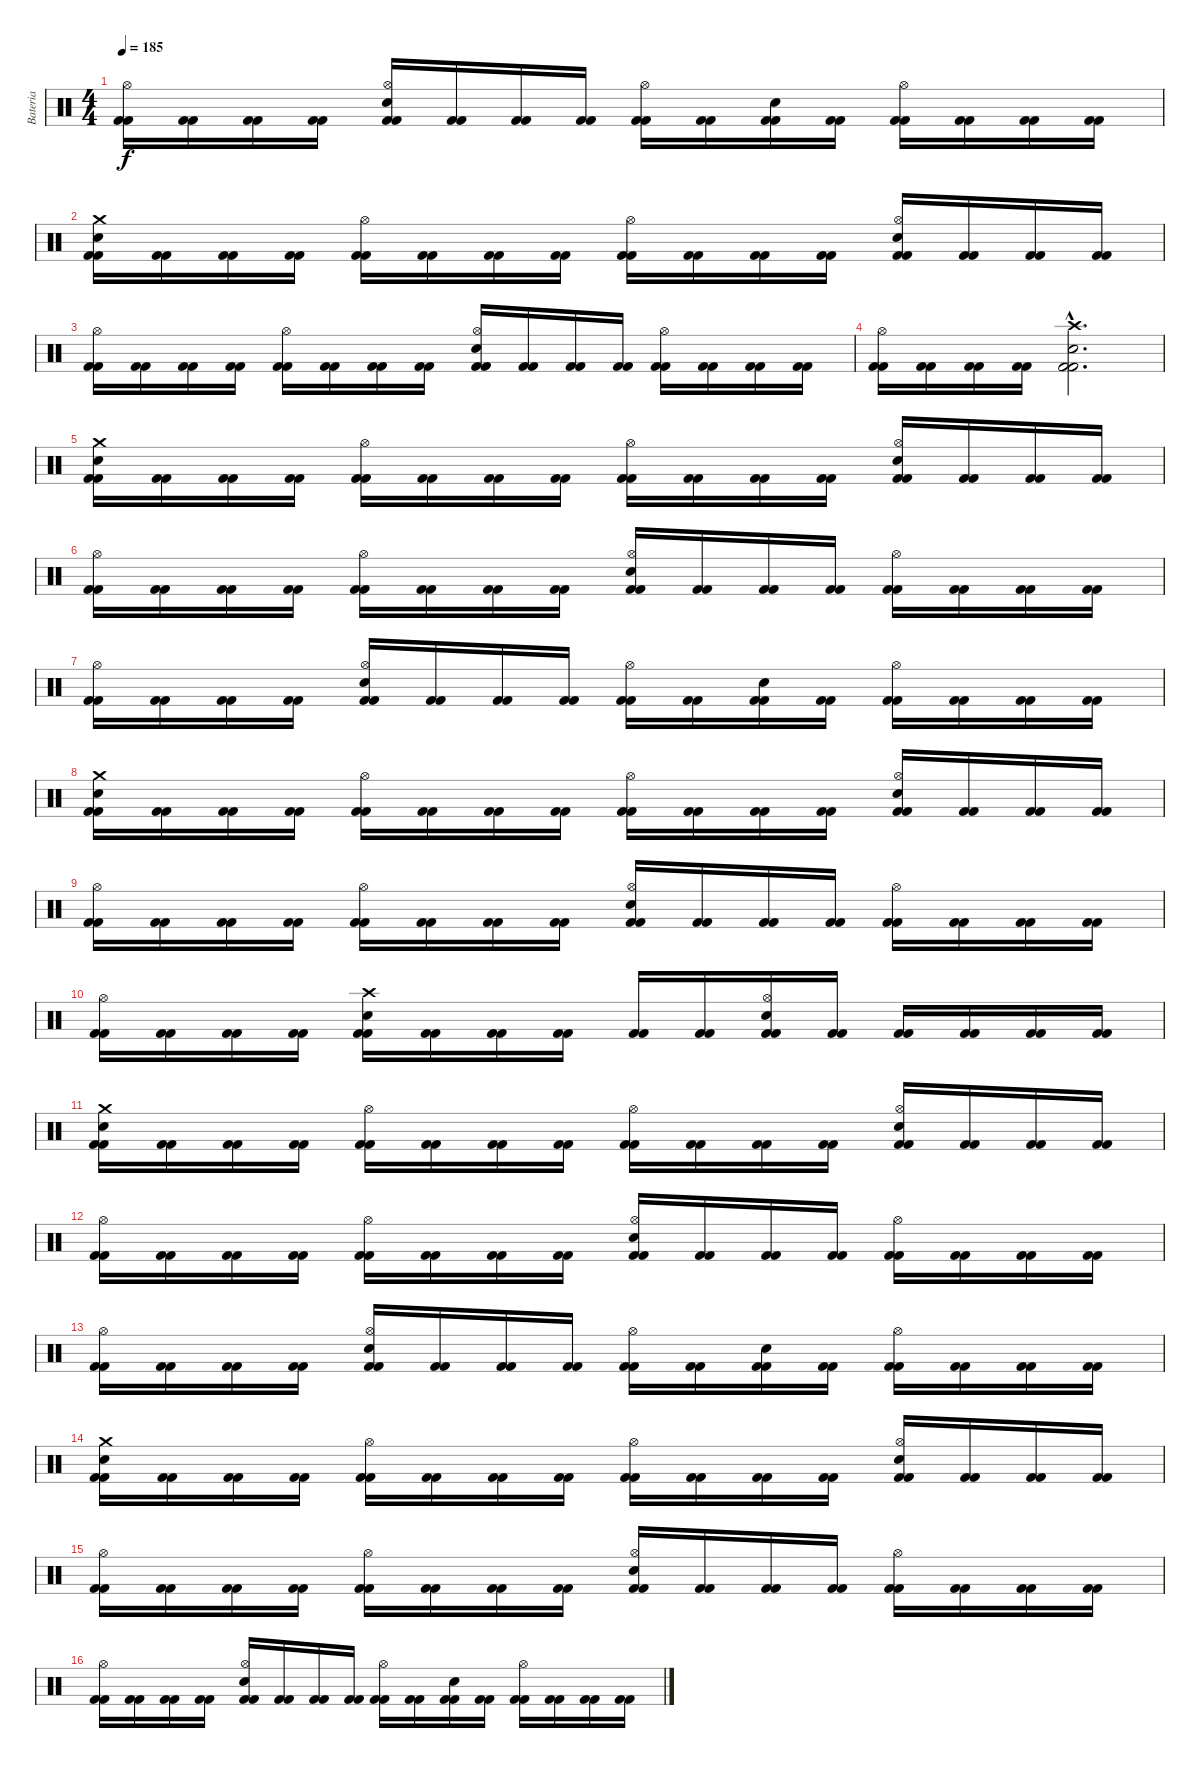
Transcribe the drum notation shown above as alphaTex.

\track ("Bateria" "Bateria") {instrument percussion}
\staff {score}
\articulation defaults
\ts (4 4)
\tempo 185
\clef neutral
\ks c
("Kick (hit) 2" "Kick (hit) 2" "Hi-Hat (open)").16{dy f} ("Kick (hit) 2" "Kick (hit) 2").16 ("Kick (hit) 2" "Kick (hit) 2").16 ("Kick (hit) 2" "Kick (hit) 2").16 ("Kick (hit) 2" "Kick (hit) 2" "Electric Snare (hit)" "Hi-Hat (open)").16 ("Kick (hit) 2" "Kick (hit) 2").16 ("Kick (hit) 2" "Kick (hit) 2").16 ("Kick (hit) 2" "Kick (hit) 2").16 ("Kick (hit) 2" "Kick (hit) 2" "Hi-Hat (open)").16 ("Kick (hit) 2" "Kick (hit) 2").16 ("Kick (hit) 2" "Kick (hit) 2" "Electric Snare (hit)").16 ("Kick (hit) 2" "Kick (hit) 2").16 ("Kick (hit) 2" "Kick (hit) 2" "Hi-Hat (open)").16 ("Kick (hit) 2" "Kick (hit) 2").16 ("Kick (hit) 2" "Kick (hit) 2").16 ("Kick (hit) 2" "Kick (hit) 2").16 |
("Kick (hit) 2" "Kick (hit) 2" "Electric Snare (hit)" "Crash medium (hit)").16 ("Kick (hit) 2" "Kick (hit) 2").16 ("Kick (hit) 2" "Kick (hit) 2").16 ("Kick (hit) 2" "Kick (hit) 2").16 ("Kick (hit) 2" "Kick (hit) 2" "Hi-Hat (open)").16 ("Kick (hit) 2" "Kick (hit) 2").16 ("Kick (hit) 2" "Kick (hit) 2").16 ("Kick (hit) 2" "Kick (hit) 2").16 ("Kick (hit) 2" "Kick (hit) 2" "Hi-Hat (open)").16 ("Kick (hit) 2" "Kick (hit) 2").16 ("Kick (hit) 2" "Kick (hit) 2").16 ("Kick (hit) 2" "Kick (hit) 2").16 ("Kick (hit) 2" "Kick (hit) 2" "Electric Snare (hit)" "Hi-Hat (open)").16 ("Kick (hit) 2" "Kick (hit) 2").16 ("Kick (hit) 2" "Kick (hit) 2").16 ("Kick (hit) 2" "Kick (hit) 2").16 |
("Kick (hit) 2" "Kick (hit) 2" "Hi-Hat (open)").16 ("Kick (hit) 2" "Kick (hit) 2").16 ("Kick (hit) 2" "Kick (hit) 2").16 ("Kick (hit) 2" "Kick (hit) 2").16 ("Kick (hit) 2" "Kick (hit) 2" "Hi-Hat (open)").16 ("Kick (hit) 2" "Kick (hit) 2").16 ("Kick (hit) 2" "Kick (hit) 2").16 ("Kick (hit) 2" "Kick (hit) 2").16 ("Kick (hit) 2" "Kick (hit) 2" "Electric Snare (hit)" "Hi-Hat (open)").16 ("Kick (hit) 2" "Kick (hit) 2").16 ("Kick (hit) 2" "Kick (hit) 2").16 ("Kick (hit) 2" "Kick (hit) 2").16 ("Kick (hit) 2" "Kick (hit) 2" "Hi-Hat (open)").16 ("Kick (hit) 2" "Kick (hit) 2").16 ("Kick (hit) 2" "Kick (hit) 2").16 ("Kick (hit) 2" "Kick (hit) 2").16 |
("Kick (hit) 2" "Kick (hit) 2" "Hi-Hat (open)").16 ("Kick (hit) 2" "Kick (hit) 2").16 ("Kick (hit) 2" "Kick (hit) 2").16 ("Kick (hit) 2" "Kick (hit) 2").16 ("Kick (hit) 2"{hac} "Kick (hit) 2"{hac} "Electric Snare (hit)"{hac} "Crash high (hit)"{hac}).2{d} |
("Kick (hit) 2" "Kick (hit) 2" "Electric Snare (hit)" "Crash medium (hit)").16 ("Kick (hit) 2" "Kick (hit) 2").16 ("Kick (hit) 2" "Kick (hit) 2").16 ("Kick (hit) 2" "Kick (hit) 2").16 ("Kick (hit) 2" "Kick (hit) 2" "Hi-Hat (open)").16 ("Kick (hit) 2" "Kick (hit) 2").16 ("Kick (hit) 2" "Kick (hit) 2").16 ("Kick (hit) 2" "Kick (hit) 2").16 ("Kick (hit) 2" "Kick (hit) 2" "Hi-Hat (open)").16 ("Kick (hit) 2" "Kick (hit) 2").16 ("Kick (hit) 2" "Kick (hit) 2").16 ("Kick (hit) 2" "Kick (hit) 2").16 ("Kick (hit) 2" "Kick (hit) 2" "Electric Snare (hit)" "Hi-Hat (open)").16 ("Kick (hit) 2" "Kick (hit) 2").16 ("Kick (hit) 2" "Kick (hit) 2").16 ("Kick (hit) 2" "Kick (hit) 2").16 |
("Kick (hit) 2" "Kick (hit) 2" "Hi-Hat (open)").16 ("Kick (hit) 2" "Kick (hit) 2").16 ("Kick (hit) 2" "Kick (hit) 2").16 ("Kick (hit) 2" "Kick (hit) 2").16 ("Kick (hit) 2" "Kick (hit) 2" "Hi-Hat (open)").16 ("Kick (hit) 2" "Kick (hit) 2").16 ("Kick (hit) 2" "Kick (hit) 2").16 ("Kick (hit) 2" "Kick (hit) 2").16 ("Kick (hit) 2" "Kick (hit) 2" "Electric Snare (hit)" "Hi-Hat (open)").16 ("Kick (hit) 2" "Kick (hit) 2").16 ("Kick (hit) 2" "Kick (hit) 2").16 ("Kick (hit) 2" "Kick (hit) 2").16 ("Kick (hit) 2" "Kick (hit) 2" "Hi-Hat (open)").16 ("Kick (hit) 2" "Kick (hit) 2").16 ("Kick (hit) 2" "Kick (hit) 2").16 ("Kick (hit) 2" "Kick (hit) 2").16 |
("Kick (hit) 2" "Kick (hit) 2" "Hi-Hat (open)").16 ("Kick (hit) 2" "Kick (hit) 2").16 ("Kick (hit) 2" "Kick (hit) 2").16 ("Kick (hit) 2" "Kick (hit) 2").16 ("Kick (hit) 2" "Kick (hit) 2" "Electric Snare (hit)" "Hi-Hat (open)").16 ("Kick (hit) 2" "Kick (hit) 2").16 ("Kick (hit) 2" "Kick (hit) 2").16 ("Kick (hit) 2" "Kick (hit) 2").16 ("Kick (hit) 2" "Kick (hit) 2" "Hi-Hat (open)").16 ("Kick (hit) 2" "Kick (hit) 2").16 ("Kick (hit) 2" "Kick (hit) 2" "Electric Snare (hit)").16 ("Kick (hit) 2" "Kick (hit) 2").16 ("Kick (hit) 2" "Kick (hit) 2" "Hi-Hat (open)").16 ("Kick (hit) 2" "Kick (hit) 2").16 ("Kick (hit) 2" "Kick (hit) 2").16 ("Kick (hit) 2" "Kick (hit) 2").16 |
("Kick (hit) 2" "Kick (hit) 2" "Electric Snare (hit)" "Crash medium (hit)").16 ("Kick (hit) 2" "Kick (hit) 2").16 ("Kick (hit) 2" "Kick (hit) 2").16 ("Kick (hit) 2" "Kick (hit) 2").16 ("Kick (hit) 2" "Kick (hit) 2" "Hi-Hat (open)").16 ("Kick (hit) 2" "Kick (hit) 2").16 ("Kick (hit) 2" "Kick (hit) 2").16 ("Kick (hit) 2" "Kick (hit) 2").16 ("Kick (hit) 2" "Kick (hit) 2" "Hi-Hat (open)").16 ("Kick (hit) 2" "Kick (hit) 2").16 ("Kick (hit) 2" "Kick (hit) 2").16 ("Kick (hit) 2" "Kick (hit) 2").16 ("Kick (hit) 2" "Kick (hit) 2" "Electric Snare (hit)" "Hi-Hat (open)").16 ("Kick (hit) 2" "Kick (hit) 2").16 ("Kick (hit) 2" "Kick (hit) 2").16 ("Kick (hit) 2" "Kick (hit) 2").16 |
("Kick (hit) 2" "Kick (hit) 2" "Hi-Hat (open)").16 ("Kick (hit) 2" "Kick (hit) 2").16 ("Kick (hit) 2" "Kick (hit) 2").16 ("Kick (hit) 2" "Kick (hit) 2").16 ("Kick (hit) 2" "Kick (hit) 2" "Hi-Hat (open)").16 ("Kick (hit) 2" "Kick (hit) 2").16 ("Kick (hit) 2" "Kick (hit) 2").16 ("Kick (hit) 2" "Kick (hit) 2").16 ("Kick (hit) 2" "Kick (hit) 2" "Electric Snare (hit)" "Hi-Hat (open)").16 ("Kick (hit) 2" "Kick (hit) 2").16 ("Kick (hit) 2" "Kick (hit) 2").16 ("Kick (hit) 2" "Kick (hit) 2").16 ("Kick (hit) 2" "Kick (hit) 2" "Hi-Hat (open)").16 ("Kick (hit) 2" "Kick (hit) 2").16 ("Kick (hit) 2" "Kick (hit) 2").16 ("Kick (hit) 2" "Kick (hit) 2").16 |
("Kick (hit) 2" "Kick (hit) 2" "Hi-Hat (open)").16 ("Kick (hit) 2" "Kick (hit) 2").16 ("Kick (hit) 2" "Kick (hit) 2").16 ("Kick (hit) 2" "Kick (hit) 2").16 ("Kick (hit) 2" "Kick (hit) 2" "Electric Snare (hit)" "Crash high (hit)").16 ("Kick (hit) 2" "Kick (hit) 2").16 ("Kick (hit) 2" "Kick (hit) 2").16 ("Kick (hit) 2" "Kick (hit) 2").16 ("Kick (hit) 2" "Kick (hit) 2").16 ("Kick (hit) 2" "Kick (hit) 2").16 ("Kick (hit) 2" "Kick (hit) 2" "Electric Snare (hit)" "Hi-Hat (open)").16 ("Kick (hit) 2" "Kick (hit) 2").16 ("Kick (hit) 2" "Kick (hit) 2").16 ("Kick (hit) 2" "Kick (hit) 2").16 ("Kick (hit) 2" "Kick (hit) 2").16 ("Kick (hit) 2" "Kick (hit) 2").16 |
("Kick (hit) 2" "Kick (hit) 2" "Electric Snare (hit)" "Crash medium (hit)").16 ("Kick (hit) 2" "Kick (hit) 2").16 ("Kick (hit) 2" "Kick (hit) 2").16 ("Kick (hit) 2" "Kick (hit) 2").16 ("Kick (hit) 2" "Kick (hit) 2" "Hi-Hat (open)").16 ("Kick (hit) 2" "Kick (hit) 2").16 ("Kick (hit) 2" "Kick (hit) 2").16 ("Kick (hit) 2" "Kick (hit) 2").16 ("Kick (hit) 2" "Kick (hit) 2" "Hi-Hat (open)").16 ("Kick (hit) 2" "Kick (hit) 2").16 ("Kick (hit) 2" "Kick (hit) 2").16 ("Kick (hit) 2" "Kick (hit) 2").16 ("Kick (hit) 2" "Kick (hit) 2" "Electric Snare (hit)" "Hi-Hat (open)").16 ("Kick (hit) 2" "Kick (hit) 2").16 ("Kick (hit) 2" "Kick (hit) 2").16 ("Kick (hit) 2" "Kick (hit) 2").16 |
("Kick (hit) 2" "Kick (hit) 2" "Hi-Hat (open)").16 ("Kick (hit) 2" "Kick (hit) 2").16 ("Kick (hit) 2" "Kick (hit) 2").16 ("Kick (hit) 2" "Kick (hit) 2").16 ("Kick (hit) 2" "Kick (hit) 2" "Hi-Hat (open)").16 ("Kick (hit) 2" "Kick (hit) 2").16 ("Kick (hit) 2" "Kick (hit) 2").16 ("Kick (hit) 2" "Kick (hit) 2").16 ("Kick (hit) 2" "Kick (hit) 2" "Electric Snare (hit)" "Hi-Hat (open)").16 ("Kick (hit) 2" "Kick (hit) 2").16 ("Kick (hit) 2" "Kick (hit) 2").16 ("Kick (hit) 2" "Kick (hit) 2").16 ("Kick (hit) 2" "Kick (hit) 2" "Hi-Hat (open)").16 ("Kick (hit) 2" "Kick (hit) 2").16 ("Kick (hit) 2" "Kick (hit) 2").16 ("Kick (hit) 2" "Kick (hit) 2").16 |
("Kick (hit) 2" "Kick (hit) 2" "Hi-Hat (open)").16 ("Kick (hit) 2" "Kick (hit) 2").16 ("Kick (hit) 2" "Kick (hit) 2").16 ("Kick (hit) 2" "Kick (hit) 2").16 ("Kick (hit) 2" "Kick (hit) 2" "Electric Snare (hit)" "Hi-Hat (open)").16 ("Kick (hit) 2" "Kick (hit) 2").16 ("Kick (hit) 2" "Kick (hit) 2").16 ("Kick (hit) 2" "Kick (hit) 2").16 ("Kick (hit) 2" "Kick (hit) 2" "Hi-Hat (open)").16 ("Kick (hit) 2" "Kick (hit) 2").16 ("Kick (hit) 2" "Kick (hit) 2" "Electric Snare (hit)").16 ("Kick (hit) 2" "Kick (hit) 2").16 ("Kick (hit) 2" "Kick (hit) 2" "Hi-Hat (open)").16 ("Kick (hit) 2" "Kick (hit) 2").16 ("Kick (hit) 2" "Kick (hit) 2").16 ("Kick (hit) 2" "Kick (hit) 2").16 |
("Kick (hit) 2" "Kick (hit) 2" "Electric Snare (hit)" "Crash medium (hit)").16 ("Kick (hit) 2" "Kick (hit) 2").16 ("Kick (hit) 2" "Kick (hit) 2").16 ("Kick (hit) 2" "Kick (hit) 2").16 ("Kick (hit) 2" "Kick (hit) 2" "Hi-Hat (open)").16 ("Kick (hit) 2" "Kick (hit) 2").16 ("Kick (hit) 2" "Kick (hit) 2").16 ("Kick (hit) 2" "Kick (hit) 2").16 ("Kick (hit) 2" "Kick (hit) 2" "Hi-Hat (open)").16 ("Kick (hit) 2" "Kick (hit) 2").16 ("Kick (hit) 2" "Kick (hit) 2").16 ("Kick (hit) 2" "Kick (hit) 2").16 ("Kick (hit) 2" "Kick (hit) 2" "Electric Snare (hit)" "Hi-Hat (open)").16 ("Kick (hit) 2" "Kick (hit) 2").16 ("Kick (hit) 2" "Kick (hit) 2").16 ("Kick (hit) 2" "Kick (hit) 2").16 |
("Kick (hit) 2" "Kick (hit) 2" "Hi-Hat (open)").16 ("Kick (hit) 2" "Kick (hit) 2").16 ("Kick (hit) 2" "Kick (hit) 2").16 ("Kick (hit) 2" "Kick (hit) 2").16 ("Kick (hit) 2" "Kick (hit) 2" "Hi-Hat (open)").16 ("Kick (hit) 2" "Kick (hit) 2").16 ("Kick (hit) 2" "Kick (hit) 2").16 ("Kick (hit) 2" "Kick (hit) 2").16 ("Kick (hit) 2" "Kick (hit) 2" "Electric Snare (hit)" "Hi-Hat (open)").16 ("Kick (hit) 2" "Kick (hit) 2").16 ("Kick (hit) 2" "Kick (hit) 2").16 ("Kick (hit) 2" "Kick (hit) 2").16 ("Kick (hit) 2" "Kick (hit) 2" "Hi-Hat (open)").16 ("Kick (hit) 2" "Kick (hit) 2").16 ("Kick (hit) 2" "Kick (hit) 2").16 ("Kick (hit) 2" "Kick (hit) 2").16 |
("Kick (hit) 2" "Kick (hit) 2" "Hi-Hat (open)").16 ("Kick (hit) 2" "Kick (hit) 2").16 ("Kick (hit) 2" "Kick (hit) 2").16 ("Kick (hit) 2" "Kick (hit) 2").16 ("Kick (hit) 2" "Kick (hit) 2" "Electric Snare (hit)" "Hi-Hat (open)").16 ("Kick (hit) 2" "Kick (hit) 2").16 ("Kick (hit) 2" "Kick (hit) 2").16 ("Kick (hit) 2" "Kick (hit) 2").16 ("Kick (hit) 2" "Kick (hit) 2" "Hi-Hat (open)").16 ("Kick (hit) 2" "Kick (hit) 2").16 ("Kick (hit) 2" "Kick (hit) 2" "Electric Snare (hit)").16 ("Kick (hit) 2" "Kick (hit) 2").16 ("Kick (hit) 2" "Kick (hit) 2" "Hi-Hat (open)").16 ("Kick (hit) 2" "Kick (hit) 2").16 ("Kick (hit) 2" "Kick (hit) 2").16 ("Kick (hit) 2" "Kick (hit) 2").16
